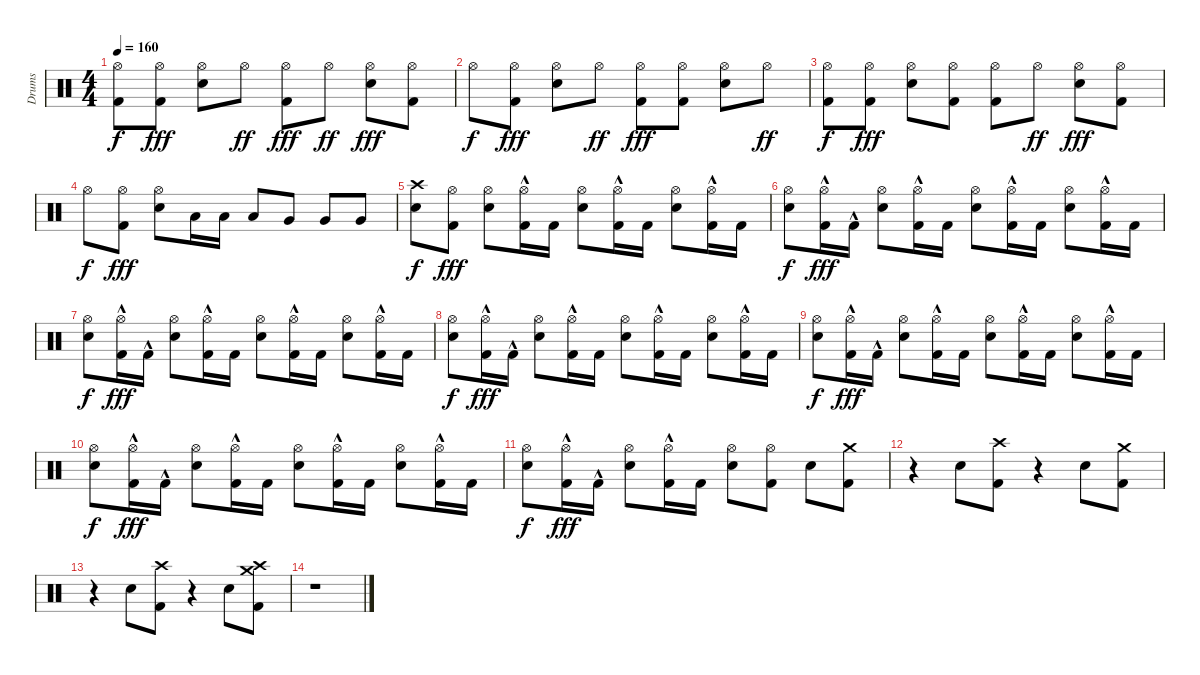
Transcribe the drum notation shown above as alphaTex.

\track ("Drums" "Drums") {instrument percussion}
\staff {score}
\articulation defaults
\ts (4 4)
\tempo 160
\clef neutral
\ks c
("Hi-Hat (open)" "Kick (hit) 2").8{dy f} ("Hi-Hat (open)" "Kick (hit) 2").8{dy fff} ("Hi-Hat (open)" "Snare (hit) 2").8 "Hi-Hat (open)".8{dy ff} ("Hi-Hat (open)" "Kick (hit) 2").8{dy fff} "Hi-Hat (open)".8{dy ff} ("Hi-Hat (open)" "Snare (hit) 2").8{dy fff} ("Hi-Hat (open)" "Kick (hit) 2").8 |
"Hi-Hat (open)".8{dy f} ("Hi-Hat (open)" "Kick (hit) 2").8{dy fff} ("Hi-Hat (open)" "Snare (hit) 2").8 "Hi-Hat (open)".8{dy ff} ("Hi-Hat (open)" "Kick (hit) 2").8{dy fff} ("Hi-Hat (open)" "Kick (hit) 2").8 ("Hi-Hat (open)" "Snare (hit) 2").8 "Hi-Hat (open)".8{dy ff} |
("Hi-Hat (open)" "Kick (hit) 2").8{dy f} ("Hi-Hat (open)" "Kick (hit) 2").8{dy fff} ("Hi-Hat (open)" "Snare (hit) 2").8 ("Hi-Hat (open)" "Kick (hit) 2").8 ("Hi-Hat (open)" "Kick (hit) 2").8 "Hi-Hat (open)".8{dy ff} ("Hi-Hat (open)" "Snare (hit) 2").8{dy fff} ("Hi-Hat (open)" "Kick (hit) 2").8 |
"Hi-Hat (open)".8{dy f} ("Hi-Hat (open)" "Kick (hit) 2").8{dy fff} ("Hi-Hat (open)" "Snare (hit) 2").8 "Low Tom (hit)".16 "Low Tom (hit)".16 "Low Tom (hit)".8 "Very Low Tom (hit)".8 "Very Low Tom (hit)".8 "Very Low Tom (hit)".8 |
("Crash high (hit)" "Snare (hit) 2").8{dy f} ("Hi-Hat (open)" "Kick (hit) 2").8{dy fff} ("Hi-Hat (open)" "Snare (hit) 2").8 ("Hi-Hat (open)"{hac} "Kick (hit) 2").16 "Kick (hit) 2".16 ("Hi-Hat (open)" "Snare (hit) 2").8 ("Hi-Hat (open)"{hac} "Kick (hit) 2").16 "Kick (hit) 2".16 ("Hi-Hat (open)" "Snare (hit) 2").8 ("Hi-Hat (open)"{hac} "Kick (hit) 2").16 "Kick (hit) 2".16 |
("Hi-Hat (open)" "Snare (hit) 2").8{dy f} ("Hi-Hat (open)"{hac} "Kick (hit) 2").16{dy fff} "Kick (hit) 2"{hac}.16 ("Hi-Hat (open)" "Snare (hit) 2").8 ("Hi-Hat (open)"{hac} "Kick (hit) 2").16 "Kick (hit) 2".16 ("Hi-Hat (open)" "Snare (hit) 2").8 ("Hi-Hat (open)"{hac} "Kick (hit) 2").16 "Kick (hit) 2".16 ("Hi-Hat (open)" "Snare (hit) 2").8 ("Hi-Hat (open)"{hac} "Kick (hit) 2").16 "Kick (hit) 2".16 |
("Hi-Hat (open)" "Snare (hit) 2").8{dy f} ("Hi-Hat (open)"{hac} "Kick (hit) 2").16{dy fff} "Kick (hit) 2"{hac}.16 ("Hi-Hat (open)" "Snare (hit) 2").8 ("Hi-Hat (open)"{hac} "Kick (hit) 2").16 "Kick (hit) 2".16 ("Hi-Hat (open)" "Snare (hit) 2").8 ("Hi-Hat (open)"{hac} "Kick (hit) 2").16 "Kick (hit) 2".16 ("Hi-Hat (open)" "Snare (hit) 2").8 ("Hi-Hat (open)"{hac} "Kick (hit) 2").16 "Kick (hit) 2".16 |
("Hi-Hat (open)" "Snare (hit) 2").8{dy f} ("Hi-Hat (open)"{hac} "Kick (hit) 2").16{dy fff} "Kick (hit) 2"{hac}.16 ("Hi-Hat (open)" "Snare (hit) 2").8 ("Hi-Hat (open)"{hac} "Kick (hit) 2").16 "Kick (hit) 2".16 ("Hi-Hat (open)" "Snare (hit) 2").8 ("Hi-Hat (open)"{hac} "Kick (hit) 2").16 "Kick (hit) 2".16 ("Hi-Hat (open)" "Snare (hit) 2").8 ("Hi-Hat (open)"{hac} "Kick (hit) 2").16 "Kick (hit) 2".16 |
("Hi-Hat (open)" "Snare (hit) 2").8{dy f} ("Hi-Hat (open)"{hac} "Kick (hit) 2").16{dy fff} "Kick (hit) 2"{hac}.16 ("Hi-Hat (open)" "Snare (hit) 2").8 ("Hi-Hat (open)"{hac} "Kick (hit) 2").16 "Kick (hit) 2".16 ("Hi-Hat (open)" "Snare (hit) 2").8 ("Hi-Hat (open)"{hac} "Kick (hit) 2").16 "Kick (hit) 2".16 ("Hi-Hat (open)" "Snare (hit) 2").8 ("Hi-Hat (open)"{hac} "Kick (hit) 2").16 "Kick (hit) 2".16 |
("Hi-Hat (open)" "Snare (hit) 2").8{dy f} ("Hi-Hat (open)"{hac} "Kick (hit) 2").16{dy fff} "Kick (hit) 2"{hac}.16 ("Hi-Hat (open)" "Snare (hit) 2").8 ("Hi-Hat (open)"{hac} "Kick (hit) 2").16 "Kick (hit) 2".16 ("Hi-Hat (open)" "Snare (hit) 2").8 ("Hi-Hat (open)"{hac} "Kick (hit) 2").16 "Kick (hit) 2".16 ("Hi-Hat (open)" "Snare (hit) 2").8 ("Hi-Hat (open)"{hac} "Kick (hit) 2").16 "Kick (hit) 2".16 |
("Hi-Hat (open)" "Snare (hit) 2").8{dy f} ("Hi-Hat (open)"{hac} "Kick (hit) 2").16{dy fff} "Kick (hit) 2"{hac}.16 ("Hi-Hat (open)" "Snare (hit) 2").8 ("Hi-Hat (open)"{hac} "Kick (hit) 2").16 "Kick (hit) 2".16 ("Hi-Hat (open)" "Snare (hit) 2").8 ("Hi-Hat (open)" "Kick (hit) 2").8 "Snare (hit) 2".8 ("Crash medium (hit)" "Kick (hit) 2").8 |
r.4 "Snare (hit) 2".8 ("Crash high (hit)" "Kick (hit) 2").8 r.4 "Snare (hit) 2".8 ("Crash medium (hit)" "Kick (hit) 2").8 |
r.4 "Snare (hit) 2".8 ("Crash high (hit)" "Kick (hit) 2").8 r.4 "Snare (hit) 2".8 ("Crash medium (hit)" "Crash high (hit)" "Kick (hit) 2").8 |
r.1
